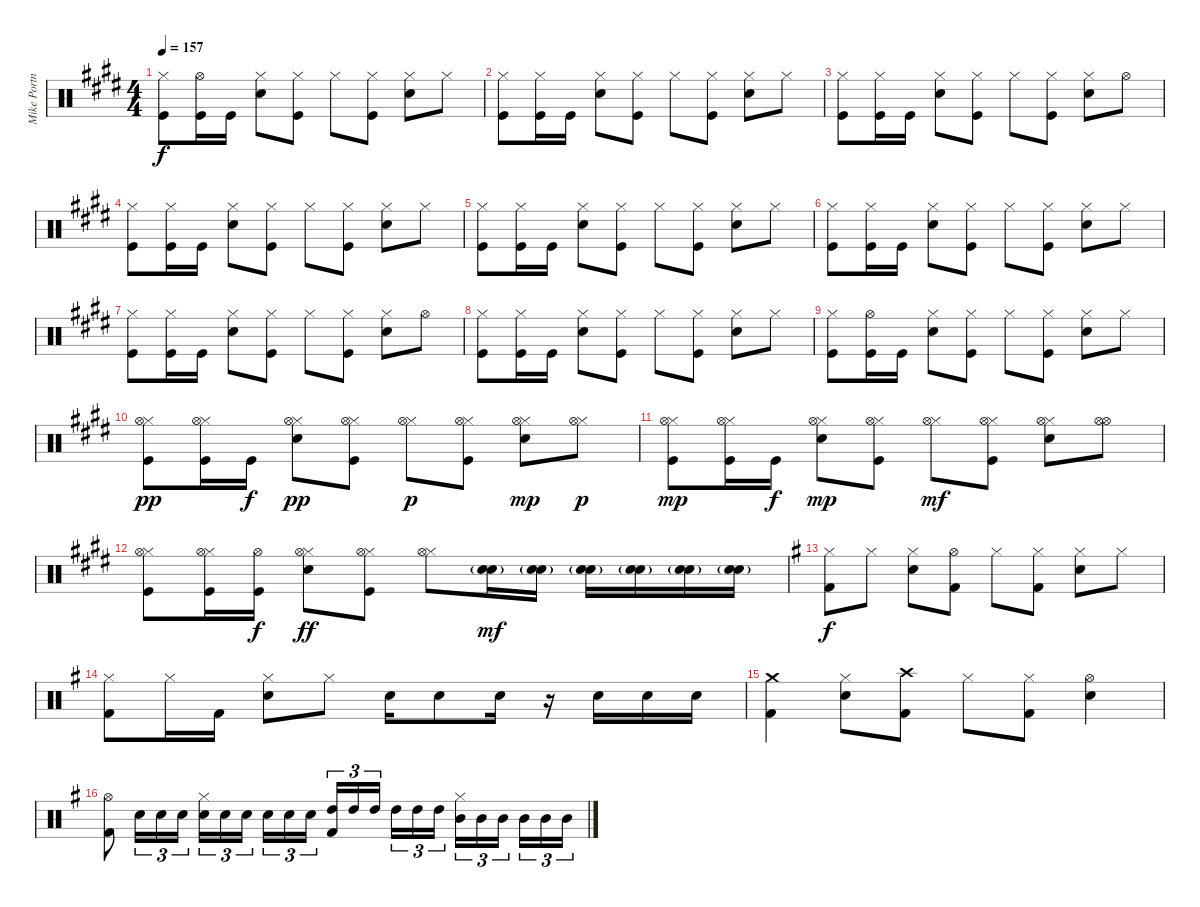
\track ("Mike Portnoy" "Mike Portn") {instrument percussion}
\staff {score}
\articulation defaults
\ts (4 4)
\tempo 157
\clef neutral
\ks e
("Kick (hit)" "Hi-Hat (closed)").8{dy f} ("Kick (hit)" "Hi-Hat (open)").16 "Kick (hit)".16 ("Snare (hit) 2" "Hi-Hat (closed)").8 ("Kick (hit)" "Hi-Hat (closed)").8 "Hi-Hat (closed)".8 ("Kick (hit)" "Hi-Hat (closed)").8 ("Snare (hit) 2" "Hi-Hat (closed)").8 "Hi-Hat (closed)".8 |
\ks c#minor
("Kick (hit)" "Hi-Hat (closed)").8 ("Kick (hit)" "Hi-Hat (closed)").16 "Kick (hit)".16 ("Snare (hit) 2" "Hi-Hat (closed)").8 ("Kick (hit)" "Hi-Hat (closed)").8 "Hi-Hat (closed)".8 ("Kick (hit)" "Hi-Hat (closed)").8 ("Snare (hit) 2" "Hi-Hat (closed)").8 "Hi-Hat (closed)".8 |
("Kick (hit)" "Hi-Hat (closed)").8 ("Kick (hit)" "Hi-Hat (closed)").16 "Kick (hit)".16 ("Snare (hit) 2" "Hi-Hat (closed)").8 ("Kick (hit)" "Hi-Hat (closed)").8 "Hi-Hat (closed)".8 ("Kick (hit)" "Hi-Hat (closed)").8 ("Snare (hit) 2" "Hi-Hat (closed)").8 "Hi-Hat (open)".8 |
("Kick (hit)" "Hi-Hat (closed)").8 ("Kick (hit)" "Hi-Hat (closed)").16 "Kick (hit)".16 ("Snare (hit) 2" "Hi-Hat (closed)").8 ("Kick (hit)" "Hi-Hat (closed)").8 "Hi-Hat (closed)".8 ("Kick (hit)" "Hi-Hat (closed)").8 ("Snare (hit) 2" "Hi-Hat (closed)").8 "Hi-Hat (closed)".8 |
\ks e
("Kick (hit)" "Hi-Hat (closed)").8 ("Kick (hit)" "Hi-Hat (closed)").16 "Kick (hit)".16 ("Snare (hit) 2" "Hi-Hat (closed)").8 ("Kick (hit)" "Hi-Hat (closed)").8 "Hi-Hat (closed)".8 ("Kick (hit)" "Hi-Hat (closed)").8 ("Snare (hit) 2" "Hi-Hat (closed)").8 "Hi-Hat (closed)".8 |
\ks c#minor
("Kick (hit)" "Hi-Hat (closed)").8 ("Kick (hit)" "Hi-Hat (closed)").16 "Kick (hit)".16 ("Snare (hit) 2" "Hi-Hat (closed)").8 ("Kick (hit)" "Hi-Hat (closed)").8 "Hi-Hat (closed)".8 ("Kick (hit)" "Hi-Hat (closed)").8 ("Snare (hit) 2" "Hi-Hat (closed)").8 "Hi-Hat (closed)".8 |
("Kick (hit)" "Hi-Hat (closed)").8 ("Kick (hit)" "Hi-Hat (closed)").16 "Kick (hit)".16 ("Snare (hit) 2" "Hi-Hat (closed)").8 ("Kick (hit)" "Hi-Hat (closed)").8 "Hi-Hat (closed)".8 ("Kick (hit)" "Hi-Hat (closed)").8 ("Snare (hit) 2" "Hi-Hat (closed)").8 "Hi-Hat (open)".8 |
("Kick (hit)" "Hi-Hat (closed)").8 ("Kick (hit)" "Hi-Hat (closed)").16 "Kick (hit)".16 ("Snare (hit) 2" "Hi-Hat (closed)").8 ("Kick (hit)" "Hi-Hat (closed)").8 "Hi-Hat (closed)".8 ("Kick (hit)" "Hi-Hat (closed)").8 ("Snare (hit) 2" "Hi-Hat (closed)").8 "Hi-Hat (closed)".8 |
\ks e
("Kick (hit)" "Hi-Hat (closed)").8 ("Kick (hit)" "Hi-Hat (open)").16 "Kick (hit)".16 ("Snare (hit) 2" "Hi-Hat (closed)").8 ("Kick (hit)" "Hi-Hat (closed)").8 "Hi-Hat (closed)".8 ("Kick (hit)" "Hi-Hat (closed)").8 ("Snare (hit) 2" "Hi-Hat (closed)").8 "Hi-Hat (closed)".8 |
\ks c#minor
("Kick (hit)" "Hi-Hat (closed)" "Hi-Hat (open)").8{dy pp} ("Kick (hit)" "Hi-Hat (closed)" "Hi-Hat (open)").16 "Kick (hit)".16{dy f} ("Snare (hit) 2" "Hi-Hat (closed)" "Hi-Hat (open)").8{dy pp} ("Kick (hit)" "Hi-Hat (closed)" "Hi-Hat (open)").8 ("Hi-Hat (closed)" "Hi-Hat (open)").8{dy p} ("Kick (hit)" "Hi-Hat (closed)" "Hi-Hat (open)").8 ("Snare (hit) 2" "Hi-Hat (closed)" "Hi-Hat (open)").8{dy mp} ("Hi-Hat (closed)" "Hi-Hat (open)").8{dy p} |
("Kick (hit)" "Hi-Hat (closed)" "Hi-Hat (open)").8{dy mp} ("Kick (hit)" "Hi-Hat (closed)" "Hi-Hat (open)").16 "Kick (hit)".16{dy f} ("Snare (hit) 2" "Hi-Hat (closed)" "Hi-Hat (open)").8{dy mp} ("Kick (hit)" "Hi-Hat (closed)" "Hi-Hat (open)").8 ("Hi-Hat (closed)" "Hi-Hat (open)").8{dy mf} ("Kick (hit)" "Hi-Hat (closed)" "Hi-Hat (open)").8 ("Snare (hit) 2" "Hi-Hat (closed)" "Hi-Hat (open)").8 ("Hi-Hat (open)" "Hi-Hat (open)").8 |
("Kick (hit)" "Hi-Hat (closed)" "Hi-Hat (open)").8 ("Kick (hit)" "Hi-Hat (closed)" "Hi-Hat (open)").16 ("Kick (hit)" "Hi-Hat (open)").16{dy f} ("Snare (hit) 2" "Hi-Hat (closed)" "Hi-Hat (open)").8{dy ff} ("Kick (hit)" "Hi-Hat (closed)" "Hi-Hat (open)").8 ("Hi-Hat (closed)" "Hi-Hat (open)").8 ("Snare (hit) 2" "Electric Snare (hit)"{g}).16{dy mf} ("Snare (hit) 2" "Electric Snare (hit)"{g}).16 ("Snare (hit) 2" "Electric Snare (hit)"{g}).16 ("Snare (hit) 2" "Electric Snare (hit)"{g}).16 ("Snare (hit) 2" "Electric Snare (hit)"{g}).16 ("Snare (hit) 2" "Electric Snare (hit)"{g}).16 |
\ks g
("Kick (hit) 2" "Hi-Hat (closed)").8{dy f} "Hi-Hat (closed)".8 ("Snare (hit) 2" "Hi-Hat (closed)").8 ("Kick (hit) 2" "Hi-Hat (open)").8 "Hi-Hat (closed)".8 ("Kick (hit) 2" "Hi-Hat (closed)").8 ("Snare (hit) 2" "Hi-Hat (closed)").8 "Hi-Hat (closed)".8 |
("Kick (hit) 2" "Hi-Hat (closed)").8 "Hi-Hat (closed)".16 "Kick (hit) 2".16 ("Snare (hit) 2" "Hi-Hat (closed)").8 "Hi-Hat (closed)".8 "Snare (hit) 2".16 "Snare (hit) 2".8 "Snare (hit) 2".16 r.16 "Snare (hit) 2".16 "Snare (hit) 2".16 "Snare (hit) 2".16 |
("Kick (hit) 2" "Crash medium (hit)").4 ("Snare (hit) 2" "Hi-Hat (closed)").8 ("Kick (hit) 2" "Crash high (hit)").8 "Hi-Hat (closed)".8 ("Kick (hit) 2" "Hi-Hat (closed)").8 ("Snare (hit) 2" "Hi-Hat (open)").4 |
("Kick (hit) 2" "Hi-Hat (open)").8 "Snare (hit) 2".16{tu (3 2)} "Snare (hit) 2".16{tu (3 2)} "Snare (hit) 2".16{tu (3 2)} ("Snare (hit) 2" "Hi-Hat (closed)").16{tu (3 2)} "Snare (hit) 2".16{tu (3 2)} "Snare (hit) 2".16{tu (3 2) beam splitsecondary} "Snare (hit) 2".16{tu (3 2)} "Snare (hit) 2".16{tu (3 2)} "Snare (hit) 2".16{tu (3 2)} ("Kick (hit) 2" "High Tom (hit)").16{tu (3 2)} "High Tom (hit)".16{tu (3 2)} "High Tom (hit)".16{tu (3 2) beam splitsecondary} "High Tom (hit)".16{tu (3 2)} "High Tom (hit)".16{tu (3 2)} "High Tom (hit)".16{tu (3 2)} ("Hi-Hat (closed)" "Mid Tom (hit)").16{tu (3 2)} "Mid Tom (hit)".16{tu (3 2)} "Mid Tom (hit)".16{tu (3 2) beam splitsecondary} "Mid Tom (hit)".16{tu (3 2)} "Mid Tom (hit)".16{tu (3 2)} "Mid Tom (hit)".16{tu (3 2)}
